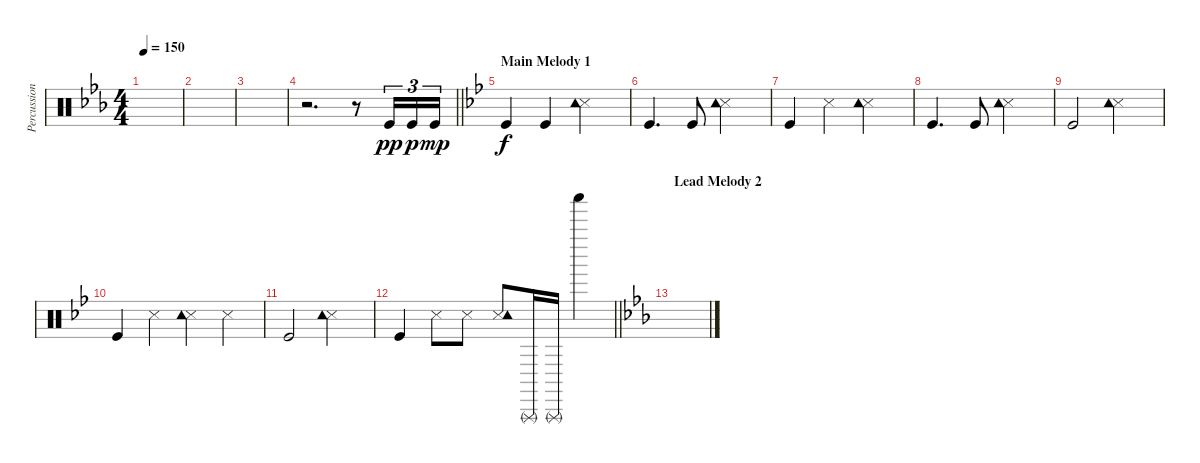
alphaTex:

\track ("Percussion" "Percussion") {instrument percussion}
\staff {score}
\articulation defaults
\ts (4 4)
\tempo 150
\clef neutral
\ks cminor
|
|
|
\barLineRight lightlight
r.2{d} r.8 "Kick (hit)".16{tu (3 2) dy pp} "Kick (hit)".16{tu (3 2) dy p} "Kick (hit)".16{tu (3 2) dy mp} |
\section ("" "Main Melody 1")
\ks gminor "Kick (hit)".4{dy f} "Kick (hit)".4
("Snare (side stick) 3" "Tambourine (hit)").2 |
"Kick (hit)".4{d} "Kick (hit)".8 ("Snare (side stick) 3" "Tambourine (hit)").2 |
"Kick (hit)".4 "Snare (side stick) 3".4 ("Snare (side stick) 3" "Tambourine (hit)").2 |
"Kick (hit)".4{d} "Kick (hit)".8 ("Snare (side stick) 3" "Tambourine (hit)").2 |
"Kick (hit)".2 ("Snare (side stick) 3" "Tambourine (hit)").2 |
"Kick (hit)".4 "Snare (side stick) 3".4 ("Snare (side stick) 3" "Tambourine (hit)").4 "Snare (side stick) 3".4 |
"Kick (hit)".2 ("Snare (side stick) 3" "Tambourine (hit)").2 |
\barLineRight lightlight "Kick (hit)".4 "Snare (side stick) 3".8 "Snare (side stick) 3".8
("Snare (side stick) 3" "Tambourine (hit)").8 "Triangle (rnute)".16 "Triangle (rnute)".16 "Shaker (hit)".4 |
\section ("" "Lead Melody 2")
\ks cminor
